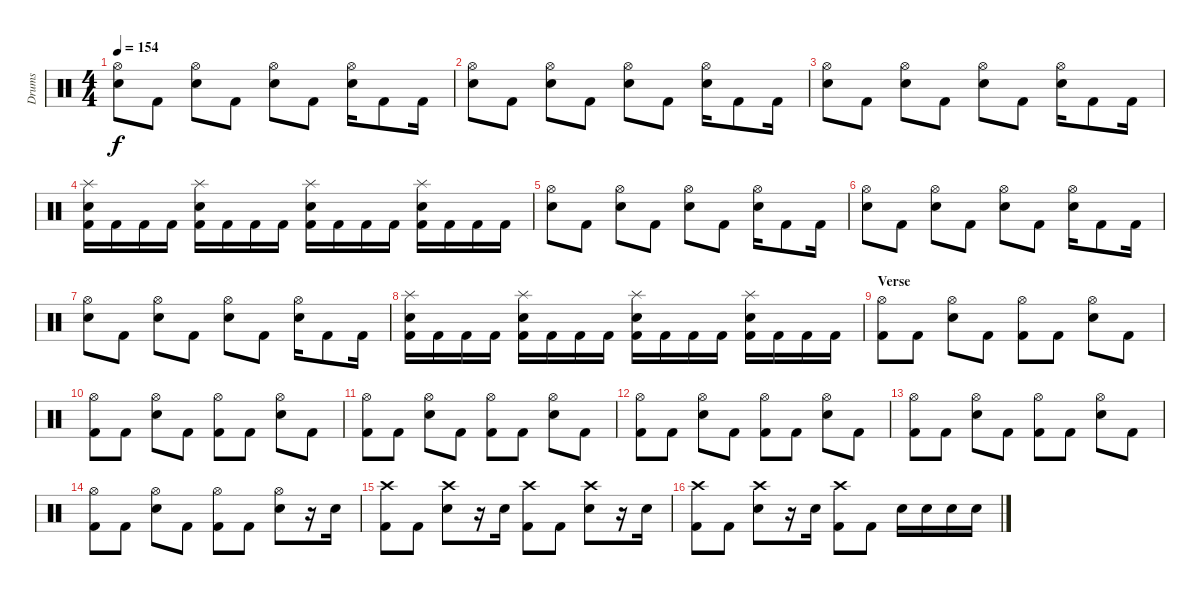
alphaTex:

\track ("Drums" "Drums") {instrument percussion}
\staff {score}
\articulation defaults
\ts (4 4)
\tempo 154
\clef neutral
\ks c
("Hi-Hat (open)" "Electric Snare (hit)").8{dy f} "Kick (hit) 2".8 ("Hi-Hat (open)" "Electric Snare (hit)").8 "Kick (hit) 2".8 ("Hi-Hat (open)" "Electric Snare (hit)").8 "Kick (hit) 2".8 ("Hi-Hat (open)" "Electric Snare (hit)").16 "Kick (hit) 2".8 "Kick (hit) 2".16 |
("Hi-Hat (open)" "Electric Snare (hit)").8 "Kick (hit) 2".8 ("Hi-Hat (open)" "Electric Snare (hit)").8 "Kick (hit) 2".8 ("Hi-Hat (open)" "Electric Snare (hit)").8 "Kick (hit) 2".8 ("Hi-Hat (open)" "Electric Snare (hit)").16 "Kick (hit) 2".8 "Kick (hit) 2".16 |
("Hi-Hat (open)" "Electric Snare (hit)").8 "Kick (hit) 2".8 ("Hi-Hat (open)" "Electric Snare (hit)").8 "Kick (hit) 2".8 ("Hi-Hat (open)" "Electric Snare (hit)").8 "Kick (hit) 2".8 ("Hi-Hat (open)" "Electric Snare (hit)").16 "Kick (hit) 2".8 "Kick (hit) 2".16 |
("Splash (hit)" "Electric Snare (hit)" "Kick (hit) 2").16 "Kick (hit) 2".16 "Kick (hit) 2".16 "Kick (hit) 2".16 ("Splash (hit)" "Electric Snare (hit)" "Kick (hit) 2").16 "Kick (hit) 2".16 "Kick (hit) 2".16 "Kick (hit) 2".16 ("Splash (hit)" "Electric Snare (hit)" "Kick (hit) 2").16 "Kick (hit) 2".16 "Kick (hit) 2".16 "Kick (hit) 2".16 ("Splash (hit)" "Electric Snare (hit)" "Kick (hit) 2").16 "Kick (hit) 2".16 "Kick (hit) 2".16 "Kick (hit) 2".16 |
("Hi-Hat (open)" "Electric Snare (hit)").8 "Kick (hit) 2".8 ("Hi-Hat (open)" "Electric Snare (hit)").8 "Kick (hit) 2".8 ("Hi-Hat (open)" "Electric Snare (hit)").8 "Kick (hit) 2".8 ("Hi-Hat (open)" "Electric Snare (hit)").16 "Kick (hit) 2".8 "Kick (hit) 2".16 |
("Hi-Hat (open)" "Electric Snare (hit)").8 "Kick (hit) 2".8 ("Hi-Hat (open)" "Electric Snare (hit)").8 "Kick (hit) 2".8 ("Hi-Hat (open)" "Electric Snare (hit)").8 "Kick (hit) 2".8 ("Hi-Hat (open)" "Electric Snare (hit)").16 "Kick (hit) 2".8 "Kick (hit) 2".16 |
("Hi-Hat (open)" "Electric Snare (hit)").8 "Kick (hit) 2".8 ("Hi-Hat (open)" "Electric Snare (hit)").8 "Kick (hit) 2".8 ("Hi-Hat (open)" "Electric Snare (hit)").8 "Kick (hit) 2".8 ("Hi-Hat (open)" "Electric Snare (hit)").16 "Kick (hit) 2".8 "Kick (hit) 2".16 |
("Splash (hit)" "Electric Snare (hit)" "Kick (hit) 2").16 "Kick (hit) 2".16 "Kick (hit) 2".16 "Kick (hit) 2".16 ("Splash (hit)" "Electric Snare (hit)" "Kick (hit) 2").16 "Kick (hit) 2".16 "Kick (hit) 2".16 "Kick (hit) 2".16 ("Splash (hit)" "Electric Snare (hit)" "Kick (hit) 2").16 "Kick (hit) 2".16 "Kick (hit) 2".16 "Kick (hit) 2".16 ("Splash (hit)" "Electric Snare (hit)" "Kick (hit) 2").16 "Kick (hit) 2".16 "Kick (hit) 2".16 "Kick (hit) 2".16 |
\section ("" "Verse")
("Hi-Hat (open)" "Kick (hit) 2").8 "Kick (hit) 2".8 ("Hi-Hat (open)" "Electric Snare (hit)").8 "Kick (hit) 2".8 ("Hi-Hat (open)" "Kick (hit) 2").8 "Kick (hit) 2".8 ("Hi-Hat (open)" "Electric Snare (hit)").8 "Kick (hit) 2".8 |
("Hi-Hat (open)" "Kick (hit) 2").8 "Kick (hit) 2".8 ("Hi-Hat (open)" "Electric Snare (hit)").8 "Kick (hit) 2".8 ("Hi-Hat (open)" "Kick (hit) 2").8 "Kick (hit) 2".8 ("Hi-Hat (open)" "Electric Snare (hit)").8 "Kick (hit) 2".8 |
("Hi-Hat (open)" "Kick (hit) 2").8 "Kick (hit) 2".8 ("Hi-Hat (open)" "Electric Snare (hit)").8 "Kick (hit) 2".8 ("Hi-Hat (open)" "Kick (hit) 2").8 "Kick (hit) 2".8 ("Hi-Hat (open)" "Electric Snare (hit)").8 "Kick (hit) 2".8 |
("Hi-Hat (open)" "Kick (hit) 2").8 "Kick (hit) 2".8 ("Hi-Hat (open)" "Electric Snare (hit)").8 "Kick (hit) 2".8 ("Hi-Hat (open)" "Kick (hit) 2").8 "Kick (hit) 2".8 ("Hi-Hat (open)" "Electric Snare (hit)").8 "Kick (hit) 2".8 |
("Hi-Hat (open)" "Kick (hit) 2").8 "Kick (hit) 2".8 ("Hi-Hat (open)" "Electric Snare (hit)").8 "Kick (hit) 2".8 ("Hi-Hat (open)" "Kick (hit) 2").8 "Kick (hit) 2".8 ("Hi-Hat (open)" "Electric Snare (hit)").8 "Kick (hit) 2".8 |
("Hi-Hat (open)" "Kick (hit) 2").8 "Kick (hit) 2".8 ("Hi-Hat (open)" "Electric Snare (hit)").8 "Kick (hit) 2".8 ("Hi-Hat (open)" "Kick (hit) 2").8 "Kick (hit) 2".8 ("Hi-Hat (open)" "Electric Snare (hit)").8 r.16 "Electric Snare (hit)".16 |
("Crash high (hit)" "Kick (hit) 2").8 "Kick (hit) 2".8 ("Crash high (hit)" "Electric Snare (hit)").8 r.16 "Electric Snare (hit)".16 ("Crash high (hit)" "Kick (hit) 2").8 "Kick (hit) 2".8 ("Crash high (hit)" "Electric Snare (hit)").8 r.16 "Electric Snare (hit)".16 |
("Crash high (hit)" "Kick (hit) 2").8 "Kick (hit) 2".8 ("Crash high (hit)" "Electric Snare (hit)").8 r.16 "Electric Snare (hit)".16 ("Crash high (hit)" "Kick (hit) 2").8 "Kick (hit) 2".8 "Electric Snare (hit)".16 "Electric Snare (hit)".16 "Electric Snare (hit)".16 "Electric Snare (hit)".16
